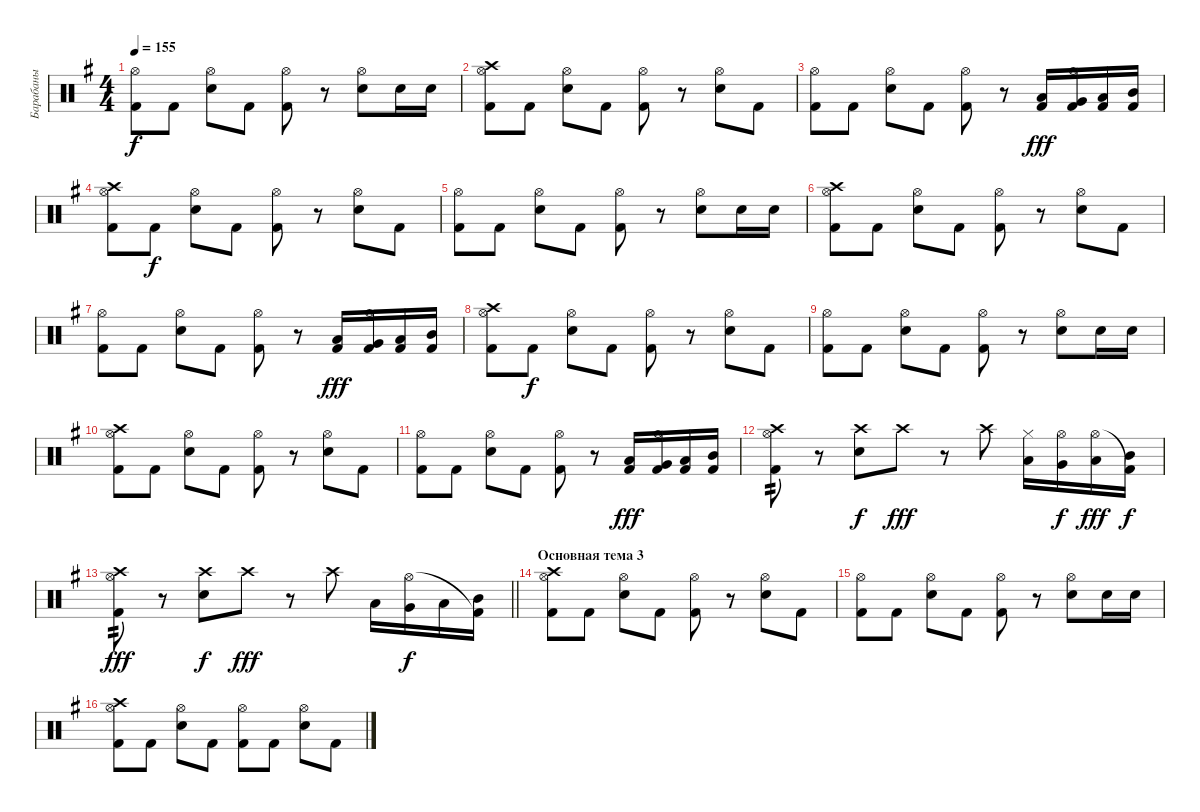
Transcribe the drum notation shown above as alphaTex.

\track ("Барабаны" "Барабаны") {instrument percussion}
\staff {score}
\articulation defaults
\ts (4 4)
\tempo 155
\clef neutral
\ks eminor
("Kick (hit) 2" "Hi-Hat (open)").8{dy f} "Kick (hit) 2".8 ("Electric Snare (hit)" "Hi-Hat (open)").8 "Kick (hit) 2".8 ("Kick (hit) 2" "Hi-Hat (open)").8 r.8 ("Electric Snare (hit)" "Hi-Hat (open)").8 "Electric Snare (hit)".16 "Electric Snare (hit)".16 |
("Kick (hit) 2" "Hi-Hat (open)" "Crash high (hit)").8 "Kick (hit) 2".8 ("Electric Snare (hit)" "Hi-Hat (open)").8 "Kick (hit) 2".8 ("Kick (hit) 2" "Hi-Hat (open)").8 r.8 ("Electric Snare (hit)" "Hi-Hat (open)").8 "Kick (hit) 2".8 |
("Kick (hit) 2" "Hi-Hat (open)").8 "Kick (hit) 2".8 ("Electric Snare (hit)" "Hi-Hat (open)").8 "Kick (hit) 2".8 ("Kick (hit) 2" "Hi-Hat (open)").8 r.8 ("Low Floor Tom (hit)" "Kick (hit) 2").16{dy fff} ("Very Low Tom (hit)" "Hi-Hat (open)" "Kick (hit) 2").16 ("Low Tom (hit)" "Kick (hit) 2").16 ("Mid Tom (hit)" "Kick (hit) 2").16 |
("Kick (hit) 2" "Hi-Hat (open)" "Crash high (hit)").8 "Kick (hit) 2".8{dy f} ("Electric Snare (hit)" "Hi-Hat (open)").8 "Kick (hit) 2".8 ("Kick (hit) 2" "Hi-Hat (open)").8 r.8 ("Electric Snare (hit)" "Hi-Hat (open)").8 "Kick (hit) 2".8 |
("Kick (hit) 2" "Hi-Hat (open)").8 "Kick (hit) 2".8 ("Electric Snare (hit)" "Hi-Hat (open)").8 "Kick (hit) 2".8 ("Kick (hit) 2" "Hi-Hat (open)").8 r.8 ("Electric Snare (hit)" "Hi-Hat (open)").8 "Electric Snare (hit)".16 "Electric Snare (hit)".16 |
("Kick (hit) 2" "Hi-Hat (open)" "Crash high (hit)").8 "Kick (hit) 2".8 ("Electric Snare (hit)" "Hi-Hat (open)").8 "Kick (hit) 2".8 ("Kick (hit) 2" "Hi-Hat (open)").8 r.8 ("Electric Snare (hit)" "Hi-Hat (open)").8 "Kick (hit) 2".8 |
("Kick (hit) 2" "Hi-Hat (open)").8 "Kick (hit) 2".8 ("Electric Snare (hit)" "Hi-Hat (open)").8 "Kick (hit) 2".8 ("Kick (hit) 2" "Hi-Hat (open)").8 r.8 ("Low Floor Tom (hit)" "Kick (hit) 2").16{dy fff} ("Very Low Tom (hit)" "Hi-Hat (open)" "Kick (hit) 2").16 ("Low Tom (hit)" "Kick (hit) 2").16 ("Mid Tom (hit)" "Kick (hit) 2").16 |
("Kick (hit) 2" "Hi-Hat (open)" "Crash high (hit)").8 "Kick (hit) 2".8{dy f} ("Electric Snare (hit)" "Hi-Hat (open)").8 "Kick (hit) 2".8 ("Kick (hit) 2" "Hi-Hat (open)").8 r.8 ("Electric Snare (hit)" "Hi-Hat (open)").8 "Kick (hit) 2".8 |
("Kick (hit) 2" "Hi-Hat (open)").8 "Kick (hit) 2".8 ("Electric Snare (hit)" "Hi-Hat (open)").8 "Kick (hit) 2".8 ("Kick (hit) 2" "Hi-Hat (open)").8 r.8 ("Electric Snare (hit)" "Hi-Hat (open)").8 "Electric Snare (hit)".16 "Electric Snare (hit)".16 |
("Kick (hit) 2" "Hi-Hat (open)" "Crash high (hit)").8 "Kick (hit) 2".8 ("Electric Snare (hit)" "Hi-Hat (open)").8 "Kick (hit) 2".8 ("Kick (hit) 2" "Hi-Hat (open)").8 r.8 ("Electric Snare (hit)" "Hi-Hat (open)").8 "Kick (hit) 2".8 |
("Kick (hit) 2" "Hi-Hat (open)").8 "Kick (hit) 2".8 ("Electric Snare (hit)" "Hi-Hat (open)").8 "Kick (hit) 2".8 ("Kick (hit) 2" "Hi-Hat (open)").8 r.8 ("Low Floor Tom (hit)" "Kick (hit) 2").16{dy fff} ("Very Low Tom (hit)" "Hi-Hat (open)" "Kick (hit) 2").16 ("Low Tom (hit)" "Kick (hit) 2").16 ("Mid Tom (hit)" "Kick (hit) 2").16 |
("Hi-Hat (open)" "Kick (hit) 2" "Crash high (hit)").8{tp 2} r.8 ("Electric Snare (hit)" "Crash high (hit)").8{dy f} "Crash high (hit)".8{dy fff} r.8 "Crash high (hit)".8 ("Low Floor Tom (hit)" "Hi-Hat (closed)").16 ("Very Low Tom (hit)" "Hi-Hat (open)").16{dy f} ("Low Tom (hit)" "Hi-Hat (open)").16{dy fff} ("Mid Tom (hit)" "Kick (hit) 2"{t}).16{dy f} |
\barLineRight lightlight
("Hi-Hat (open)" "Kick (hit) 2" "Crash high (hit)").8{tp 2 dy fff} r.8 ("Electric Snare (hit)" "Crash high (hit)").8{dy f} "Crash high (hit)".8{dy fff} r.8 "Crash high (hit)".8 "Low Floor Tom (hit)".16 ("Very Low Tom (hit)" "Hi-Hat (open)").16{dy f} "Low Tom (hit)".16 ("Mid Tom (hit)" "Kick (hit) 2"{t}).16 |
\section ("" "Основная тема 3")
("Kick (hit) 2" "Hi-Hat (open)" "Crash high (hit)").8 "Kick (hit) 2".8 ("Electric Snare (hit)" "Hi-Hat (open)").8 "Kick (hit) 2".8 ("Kick (hit) 2" "Hi-Hat (open)").8 r.8 ("Electric Snare (hit)" "Hi-Hat (open)").8 "Kick (hit) 2".8 |
("Kick (hit) 2" "Hi-Hat (open)").8 "Kick (hit) 2".8 ("Electric Snare (hit)" "Hi-Hat (open)").8 "Kick (hit) 2".8 ("Kick (hit) 2" "Hi-Hat (open)").8 r.8 ("Electric Snare (hit)" "Hi-Hat (open)").8 "Electric Snare (hit)".16 "Electric Snare (hit)".16 |
("Kick (hit) 2" "Hi-Hat (open)" "Crash high (hit)").8 "Kick (hit) 2".8 ("Electric Snare (hit)" "Hi-Hat (open)").8 "Kick (hit) 2".8 ("Kick (hit) 2" "Hi-Hat (open)").8 "Kick (hit) 2".8 ("Electric Snare (hit)" "Hi-Hat (open)").8 "Kick (hit) 2".8
